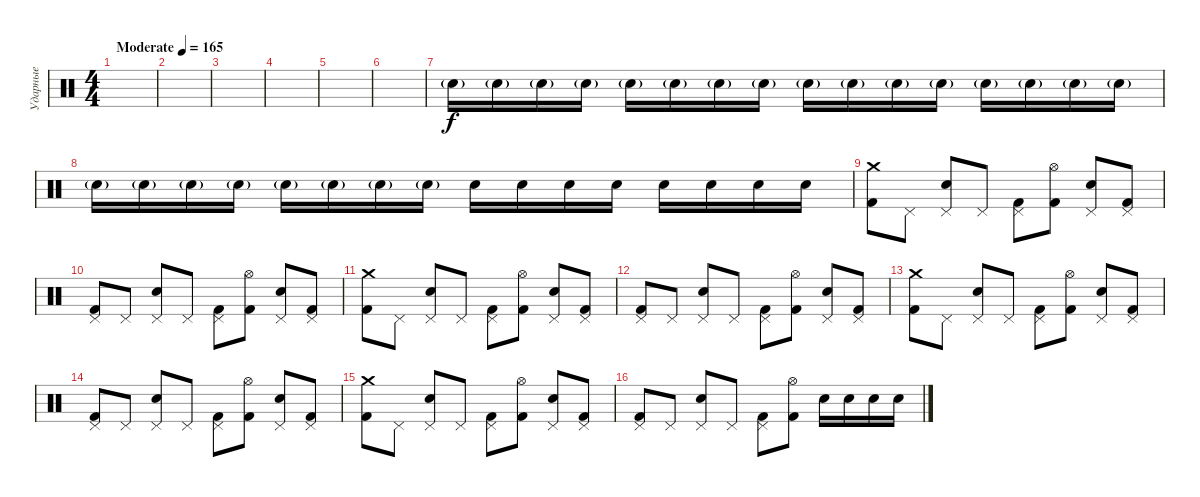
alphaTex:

\track ("Ударные" "Ударные") {instrument percussion}
\staff {score}
\articulation defaults
\ts (4 4)
\tempo (165 "Moderate")
\clef neutral
\ks c
|
|
|
|
|
|
"Electric Snare (hit)"{g}.16 "Electric Snare (hit)"{g}.16 "Electric Snare (hit)"{g}.16 "Electric Snare (hit)"{g}.16 "Electric Snare (hit)"{g}.16 "Electric Snare (hit)"{g}.16 "Electric Snare (hit)"{g}.16 "Electric Snare (hit)"{g}.16 "Electric Snare (hit)"{g}.16 "Electric Snare (hit)"{g}.16 "Electric Snare (hit)"{g}.16 "Electric Snare (hit)"{g}.16 "Electric Snare (hit)"{g}.16 "Electric Snare (hit)"{g}.16 "Electric Snare (hit)"{g}.16 "Electric Snare (hit)"{g}.16 |
"Electric Snare (hit)"{g}.16 "Electric Snare (hit)"{g}.16 "Electric Snare (hit)"{g}.16 "Electric Snare (hit)"{g}.16 "Electric Snare (hit)"{g}.16 "Electric Snare (hit)"{g}.16 "Electric Snare (hit)"{g}.16 "Electric Snare (hit)"{g}.16 "Electric Snare (hit)".16{dy f} "Electric Snare (hit)".16 "Electric Snare (hit)".16 "Electric Snare (hit)".16 "Electric Snare (hit)".16 "Electric Snare (hit)".16 "Electric Snare (hit)".16 "Electric Snare (hit)".16 |
("Crash medium (hit)" "Kick (hit) 2").8 "Pedal Hi-Hat (hit)".8 ("Pedal Hi-Hat (hit)" "Electric Snare (hit)").8 "Pedal Hi-Hat (hit)".8 ("Pedal Hi-Hat (hit)" "Kick (hit) 2").8 ("Hi-Hat (open)" "Kick (hit) 2").8 ("Pedal Hi-Hat (hit)" "Electric Snare (hit)").8 ("Pedal Hi-Hat (hit)" "Kick (hit) 2").8 |
("Pedal Hi-Hat (hit)" "Kick (hit) 2").8 "Pedal Hi-Hat (hit)".8 ("Pedal Hi-Hat (hit)" "Electric Snare (hit)").8 "Pedal Hi-Hat (hit)".8 ("Pedal Hi-Hat (hit)" "Kick (hit) 2").8 ("Hi-Hat (open)" "Kick (hit) 2").8 ("Pedal Hi-Hat (hit)" "Electric Snare (hit)").8 ("Pedal Hi-Hat (hit)" "Kick (hit) 2").8 |
("Crash medium (hit)" "Kick (hit) 2").8 "Pedal Hi-Hat (hit)".8 ("Pedal Hi-Hat (hit)" "Electric Snare (hit)").8 "Pedal Hi-Hat (hit)".8 ("Pedal Hi-Hat (hit)" "Kick (hit) 2").8 ("Hi-Hat (open)" "Kick (hit) 2").8 ("Pedal Hi-Hat (hit)" "Electric Snare (hit)").8 ("Pedal Hi-Hat (hit)" "Kick (hit) 2").8 |
("Pedal Hi-Hat (hit)" "Kick (hit) 2").8 "Pedal Hi-Hat (hit)".8 ("Pedal Hi-Hat (hit)" "Electric Snare (hit)").8 "Pedal Hi-Hat (hit)".8 ("Pedal Hi-Hat (hit)" "Kick (hit) 2").8 ("Hi-Hat (open)" "Kick (hit) 2").8 ("Pedal Hi-Hat (hit)" "Electric Snare (hit)").8 ("Pedal Hi-Hat (hit)" "Kick (hit) 2").8 |
("Crash medium (hit)" "Kick (hit) 2").8 "Pedal Hi-Hat (hit)".8 ("Pedal Hi-Hat (hit)" "Electric Snare (hit)").8 "Pedal Hi-Hat (hit)".8 ("Pedal Hi-Hat (hit)" "Kick (hit) 2").8 ("Hi-Hat (open)" "Kick (hit) 2").8 ("Pedal Hi-Hat (hit)" "Electric Snare (hit)").8 ("Pedal Hi-Hat (hit)" "Kick (hit) 2").8 |
("Pedal Hi-Hat (hit)" "Kick (hit) 2").8 "Pedal Hi-Hat (hit)".8 ("Pedal Hi-Hat (hit)" "Electric Snare (hit)").8 "Pedal Hi-Hat (hit)".8 ("Pedal Hi-Hat (hit)" "Kick (hit) 2").8 ("Hi-Hat (open)" "Kick (hit) 2").8 ("Pedal Hi-Hat (hit)" "Electric Snare (hit)").8 ("Pedal Hi-Hat (hit)" "Kick (hit) 2").8 |
("Crash medium (hit)" "Kick (hit) 2").8 "Pedal Hi-Hat (hit)".8 ("Pedal Hi-Hat (hit)" "Electric Snare (hit)").8 "Pedal Hi-Hat (hit)".8 ("Pedal Hi-Hat (hit)" "Kick (hit) 2").8 ("Hi-Hat (open)" "Kick (hit) 2").8 ("Pedal Hi-Hat (hit)" "Electric Snare (hit)").8 ("Pedal Hi-Hat (hit)" "Kick (hit) 2").8 |
("Pedal Hi-Hat (hit)" "Kick (hit) 2").8 "Pedal Hi-Hat (hit)".8 ("Pedal Hi-Hat (hit)" "Electric Snare (hit)").8 "Pedal Hi-Hat (hit)".8 ("Pedal Hi-Hat (hit)" "Kick (hit) 2").8 ("Hi-Hat (open)" "Kick (hit) 2").8 "Electric Snare (hit)".16 "Electric Snare (hit)".16 "Electric Snare (hit)".16 "Electric Snare (hit)".16
